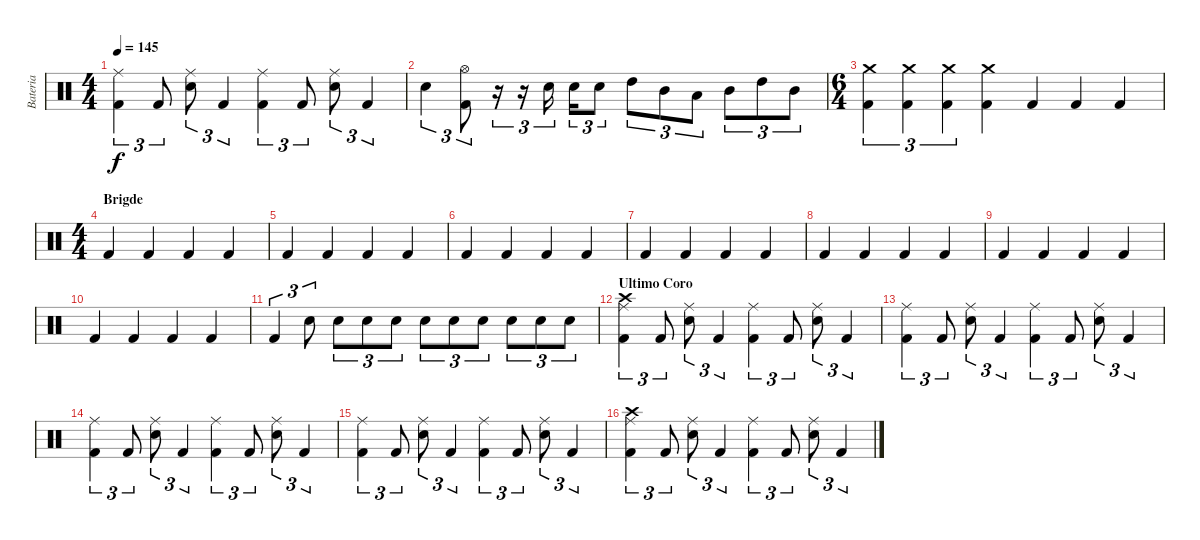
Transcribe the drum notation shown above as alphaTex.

\track ("Bateria" "Bateria") {instrument percussion}
\staff {score}
\articulation defaults
\ts (4 4)
\tempo 145
\clef neutral
\ks c
("Ride (middle)" "Kick (hit) 2").4{tu (3 2) dy f} "Kick (hit) 2".8{tu (3 2)} ("Ride (middle)" "Snare (hit) 2").8{tu (3 2)} "Kick (hit) 2".4{tu (3 2)} ("Ride (middle)" "Kick (hit) 2").4{tu (3 2)} "Kick (hit) 2".8{tu (3 2)} ("Ride (middle)" "Snare (hit) 2").8{tu (3 2)} "Kick (hit) 2".4{tu (3 2)} |
"Snare (hit) 2".4{tu (3 2)} ("Kick (hit) 2" "Hi-Hat (open)").8{tu (3 2)} r.16{tu (3 2)} r.16{tu (3 2)} "Snare (hit) 2".16{tu (3 2)} "Snare (hit) 2".16{tu (3 2)} "Snare (hit) 2".8{tu (3 2)} "High Tom (hit)".8{tu (3 2)} "Mid Tom (hit)".8{tu (3 2)} "Low Tom (hit)".8{tu (3 2)} "Mid Tom (hit)".8{tu (3 2)} "High Tom (hit)".8{tu (3 2)} "Mid Tom (hit)".8{tu (3 2)} |
\ts (6 4)
("Crash medium (hit)" "Kick (hit) 2").4{tu (3 2)} ("Crash medium (hit)" "Kick (hit) 2").4{tu (3 2)} ("Crash medium (hit)" "Kick (hit) 2").4{tu (3 2)} ("Crash medium (hit)" "Kick (hit) 2").4 "Kick (hit) 2".4 "Kick (hit) 2".4 "Kick (hit) 2".4 |
\ts (4 4)
\section ("" "Brigde")
"Kick (hit) 2".4 "Kick (hit) 2".4 "Kick (hit) 2".4 "Kick (hit) 2".4 |
"Kick (hit) 2".4 "Kick (hit) 2".4 "Kick (hit) 2".4 "Kick (hit) 2".4 |
"Kick (hit) 2".4 "Kick (hit) 2".4 "Kick (hit) 2".4 "Kick (hit) 2".4 |
"Kick (hit) 2".4 "Kick (hit) 2".4 "Kick (hit) 2".4 "Kick (hit) 2".4 |
"Kick (hit) 2".4 "Kick (hit) 2".4 "Kick (hit) 2".4 "Kick (hit) 2".4 |
"Kick (hit) 2".4 "Kick (hit) 2".4 "Kick (hit) 2".4 "Kick (hit) 2".4 |
"Kick (hit) 2".4 "Kick (hit) 2".4 "Kick (hit) 2".4 "Kick (hit) 2".4 |
"Kick (hit) 2".4{tu (3 2)} "Snare (hit) 2".8{tu (3 2)} "Snare (hit) 2".8{tu (3 2)} "Snare (hit) 2".8{tu (3 2)} "Snare (hit) 2".8{tu (3 2)} "Snare (hit) 2".8{tu (3 2)} "Snare (hit) 2".8{tu (3 2)} "Snare (hit) 2".8{tu (3 2)} "Snare (hit) 2".8{tu (3 2)} "Snare (hit) 2".8{tu (3 2)} "Snare (hit) 2".8{tu (3 2)} |
\section ("" "Ultimo Coro")
("Ride (middle)" "Crash high (hit)" "Kick (hit) 2").4{tu (3 2)} "Kick (hit) 2".8{tu (3 2)} ("Ride (middle)" "Snare (hit) 2").8{tu (3 2)} "Kick (hit) 2".4{tu (3 2)} ("Ride (middle)" "Kick (hit) 2").4{tu (3 2)} "Kick (hit) 2".8{tu (3 2)} ("Ride (middle)" "Snare (hit) 2").8{tu (3 2)} "Kick (hit) 2".4{tu (3 2)} |
("Ride (middle)" "Kick (hit) 2").4{tu (3 2)} "Kick (hit) 2".8{tu (3 2)} ("Ride (middle)" "Snare (hit) 2").8{tu (3 2)} "Kick (hit) 2".4{tu (3 2)} ("Ride (middle)" "Kick (hit) 2").4{tu (3 2)} "Kick (hit) 2".8{tu (3 2)} ("Ride (middle)" "Snare (hit) 2").8{tu (3 2)} "Kick (hit) 2".4{tu (3 2)} |
("Ride (middle)" "Kick (hit) 2").4{tu (3 2)} "Kick (hit) 2".8{tu (3 2)} ("Ride (middle)" "Snare (hit) 2").8{tu (3 2)} "Kick (hit) 2".4{tu (3 2)} ("Ride (middle)" "Kick (hit) 2").4{tu (3 2)} "Kick (hit) 2".8{tu (3 2)} ("Ride (middle)" "Snare (hit) 2").8{tu (3 2)} "Kick (hit) 2".4{tu (3 2)} |
("Ride (middle)" "Kick (hit) 2").4{tu (3 2)} "Kick (hit) 2".8{tu (3 2)} ("Ride (middle)" "Snare (hit) 2").8{tu (3 2)} "Kick (hit) 2".4{tu (3 2)} ("Ride (middle)" "Kick (hit) 2").4{tu (3 2)} "Kick (hit) 2".8{tu (3 2)} ("Ride (middle)" "Snare (hit) 2").8{tu (3 2)} "Kick (hit) 2".4{tu (3 2)} |
("Ride (middle)" "Crash high (hit)" "Kick (hit) 2").4{tu (3 2)} "Kick (hit) 2".8{tu (3 2)} ("Ride (middle)" "Snare (hit) 2").8{tu (3 2)} "Kick (hit) 2".4{tu (3 2)} ("Ride (middle)" "Kick (hit) 2").4{tu (3 2)} "Kick (hit) 2".8{tu (3 2)} ("Ride (middle)" "Snare (hit) 2").8{tu (3 2)} "Kick (hit) 2".4{tu (3 2)}
